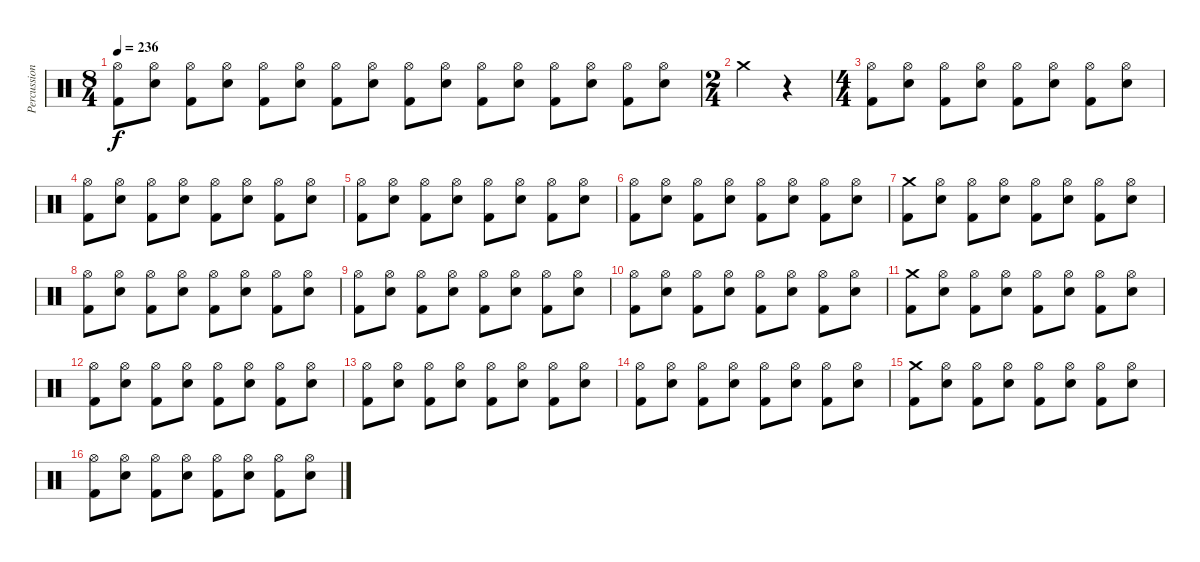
\track ("Percussion" "Percussion") {instrument percussion}
\staff {score}
\articulation defaults
\ts (8 4)
\tempo 236
\clef neutral
\ks c
("Hi-Hat (open)" "Kick (hit) 2").8{dy f} ("Hi-Hat (open)" "Snare (hit) 2").8 ("Hi-Hat (open)" "Kick (hit) 2").8 ("Hi-Hat (open)" "Snare (hit) 2").8 ("Hi-Hat (open)" "Kick (hit) 2").8 ("Hi-Hat (open)" "Snare (hit) 2").8 ("Hi-Hat (open)" "Kick (hit) 2").8 ("Hi-Hat (open)" "Snare (hit) 2").8 ("Hi-Hat (open)" "Kick (hit) 2").8 ("Hi-Hat (open)" "Snare (hit) 2").8 ("Hi-Hat (open)" "Kick (hit) 2").8 ("Hi-Hat (open)" "Snare (hit) 2").8 ("Hi-Hat (open)" "Kick (hit) 2").8 ("Hi-Hat (open)" "Snare (hit) 2").8 ("Hi-Hat (open)" "Kick (hit) 2").8 ("Hi-Hat (open)" "Snare (hit) 2").8 |
\ts (2 4)
"Crash medium (hit)".4 r.4 |
\ts (4 4)
("Hi-Hat (open)" "Kick (hit) 2").8 ("Hi-Hat (open)" "Snare (hit) 2").8 ("Hi-Hat (open)" "Kick (hit) 2").8 ("Hi-Hat (open)" "Snare (hit) 2").8 ("Hi-Hat (open)" "Kick (hit) 2").8 ("Hi-Hat (open)" "Snare (hit) 2").8 ("Hi-Hat (open)" "Kick (hit) 2").8 ("Hi-Hat (open)" "Snare (hit) 2").8 |
("Hi-Hat (open)" "Kick (hit) 2").8 ("Hi-Hat (open)" "Snare (hit) 2").8 ("Hi-Hat (open)" "Kick (hit) 2").8 ("Hi-Hat (open)" "Snare (hit) 2").8 ("Hi-Hat (open)" "Kick (hit) 2").8 ("Hi-Hat (open)" "Snare (hit) 2").8 ("Hi-Hat (open)" "Kick (hit) 2").8 ("Hi-Hat (open)" "Snare (hit) 2").8 |
("Hi-Hat (open)" "Kick (hit) 2").8 ("Hi-Hat (open)" "Snare (hit) 2").8 ("Hi-Hat (open)" "Kick (hit) 2").8 ("Hi-Hat (open)" "Snare (hit) 2").8 ("Hi-Hat (open)" "Kick (hit) 2").8 ("Hi-Hat (open)" "Snare (hit) 2").8 ("Hi-Hat (open)" "Kick (hit) 2").8 ("Hi-Hat (open)" "Snare (hit) 2").8 |
("Hi-Hat (open)" "Kick (hit) 2").8 ("Hi-Hat (open)" "Snare (hit) 2").8 ("Hi-Hat (open)" "Kick (hit) 2").8 ("Hi-Hat (open)" "Snare (hit) 2").8 ("Hi-Hat (open)" "Kick (hit) 2").8 ("Hi-Hat (open)" "Snare (hit) 2").8 ("Hi-Hat (open)" "Kick (hit) 2").8 ("Hi-Hat (open)" "Snare (hit) 2").8 |
("Crash medium (hit)" "Kick (hit) 2").8 ("Hi-Hat (open)" "Snare (hit) 2").8 ("Hi-Hat (open)" "Kick (hit) 2").8 ("Hi-Hat (open)" "Snare (hit) 2").8 ("Hi-Hat (open)" "Kick (hit) 2").8 ("Hi-Hat (open)" "Snare (hit) 2").8 ("Hi-Hat (open)" "Kick (hit) 2").8 ("Hi-Hat (open)" "Snare (hit) 2").8 |
("Hi-Hat (open)" "Kick (hit) 2").8 ("Hi-Hat (open)" "Snare (hit) 2").8 ("Hi-Hat (open)" "Kick (hit) 2").8 ("Hi-Hat (open)" "Snare (hit) 2").8 ("Hi-Hat (open)" "Kick (hit) 2").8 ("Hi-Hat (open)" "Snare (hit) 2").8 ("Hi-Hat (open)" "Kick (hit) 2").8 ("Hi-Hat (open)" "Snare (hit) 2").8 |
("Hi-Hat (open)" "Kick (hit) 2").8 ("Hi-Hat (open)" "Snare (hit) 2").8 ("Hi-Hat (open)" "Kick (hit) 2").8 ("Hi-Hat (open)" "Snare (hit) 2").8 ("Hi-Hat (open)" "Kick (hit) 2").8 ("Hi-Hat (open)" "Snare (hit) 2").8 ("Hi-Hat (open)" "Kick (hit) 2").8 ("Hi-Hat (open)" "Snare (hit) 2").8 |
("Hi-Hat (open)" "Kick (hit) 2").8 ("Hi-Hat (open)" "Snare (hit) 2").8 ("Hi-Hat (open)" "Kick (hit) 2").8 ("Hi-Hat (open)" "Snare (hit) 2").8 ("Hi-Hat (open)" "Kick (hit) 2").8 ("Hi-Hat (open)" "Snare (hit) 2").8 ("Hi-Hat (open)" "Kick (hit) 2").8 ("Hi-Hat (open)" "Snare (hit) 2").8 |
("Crash medium (hit)" "Kick (hit) 2").8 ("Hi-Hat (open)" "Snare (hit) 2").8 ("Hi-Hat (open)" "Kick (hit) 2").8 ("Hi-Hat (open)" "Snare (hit) 2").8 ("Hi-Hat (open)" "Kick (hit) 2").8 ("Hi-Hat (open)" "Snare (hit) 2").8 ("Hi-Hat (open)" "Kick (hit) 2").8 ("Hi-Hat (open)" "Snare (hit) 2").8 |
("Hi-Hat (open)" "Kick (hit) 2").8 ("Hi-Hat (open)" "Snare (hit) 2").8 ("Hi-Hat (open)" "Kick (hit) 2").8 ("Hi-Hat (open)" "Snare (hit) 2").8 ("Hi-Hat (open)" "Kick (hit) 2").8 ("Hi-Hat (open)" "Snare (hit) 2").8 ("Hi-Hat (open)" "Kick (hit) 2").8 ("Hi-Hat (open)" "Snare (hit) 2").8 |
("Hi-Hat (open)" "Kick (hit) 2").8 ("Hi-Hat (open)" "Snare (hit) 2").8 ("Hi-Hat (open)" "Kick (hit) 2").8 ("Hi-Hat (open)" "Snare (hit) 2").8 ("Hi-Hat (open)" "Kick (hit) 2").8 ("Hi-Hat (open)" "Snare (hit) 2").8 ("Hi-Hat (open)" "Kick (hit) 2").8 ("Hi-Hat (open)" "Snare (hit) 2").8 |
("Hi-Hat (open)" "Kick (hit) 2").8 ("Hi-Hat (open)" "Snare (hit) 2").8 ("Hi-Hat (open)" "Kick (hit) 2").8 ("Hi-Hat (open)" "Snare (hit) 2").8 ("Hi-Hat (open)" "Kick (hit) 2").8 ("Hi-Hat (open)" "Snare (hit) 2").8 ("Hi-Hat (open)" "Kick (hit) 2").8 ("Hi-Hat (open)" "Snare (hit) 2").8 |
("Crash medium (hit)" "Kick (hit) 2").8 ("Hi-Hat (open)" "Snare (hit) 2").8 ("Hi-Hat (open)" "Kick (hit) 2").8 ("Hi-Hat (open)" "Snare (hit) 2").8 ("Hi-Hat (open)" "Kick (hit) 2").8 ("Hi-Hat (open)" "Snare (hit) 2").8 ("Hi-Hat (open)" "Kick (hit) 2").8 ("Hi-Hat (open)" "Snare (hit) 2").8 |
("Hi-Hat (open)" "Kick (hit) 2").8 ("Hi-Hat (open)" "Snare (hit) 2").8 ("Hi-Hat (open)" "Kick (hit) 2").8 ("Hi-Hat (open)" "Snare (hit) 2").8 ("Hi-Hat (open)" "Kick (hit) 2").8 ("Hi-Hat (open)" "Snare (hit) 2").8 ("Hi-Hat (open)" "Kick (hit) 2").8 ("Hi-Hat (open)" "Snare (hit) 2").8
